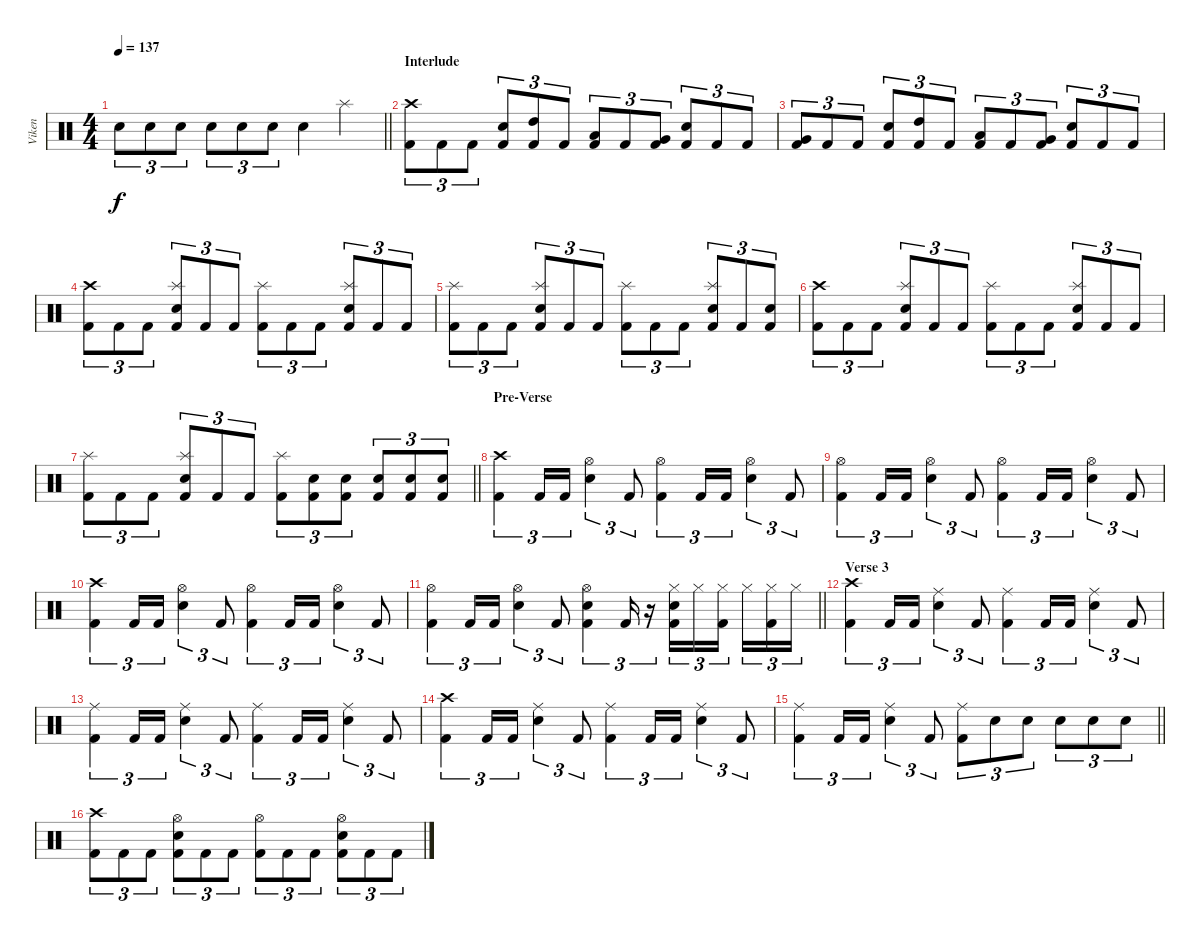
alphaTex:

\track ("Viken" "Viken") {instrument percussion}
\staff {score}
\articulation defaults
\ts (4 4)
\tempo 137
\clef neutral
\barLineRight lightlight
\ks c "Electric Snare (hit)".8{tu (3 2) dy f} "Electric Snare (hit)".8{tu (3 2)} "Electric Snare (hit)".8{tu (3 2)} "Electric Snare (hit)".8{tu (3 2)} "Electric Snare (hit)".8{tu (3 2)} "Electric Snare (hit)".8{tu (3 2)} "Electric Snare (hit)".4 "Splash (hit)".4
|
\section ("" "Interlude")
("Crash high (hit)" "Kick (hit) 2").8{tu (3 2)} "Kick (hit) 2".8{tu (3 2)} "Kick (hit) 2".8{tu (3 2)} ("Electric Snare (hit)" "Kick (hit) 2").8{tu (3 2)} ("High Tom (hit)" "Kick (hit) 2").8{tu (3 2)} "Kick (hit) 2".8{tu (3 2)} ("Low Tom (hit)" "Kick (hit) 2").8{tu (3 2)} "Kick (hit) 2".8{tu (3 2)} ("Very Low Tom (hit)" "Kick (hit) 2").8{tu (3 2)} ("Electric Snare (hit)" "Kick (hit) 2").8{tu (3 2)} "Kick (hit) 2".8{tu (3 2)} "Kick (hit) 2".8{tu (3 2)} |
("Very Low Tom (hit)" "Kick (hit) 2").8{tu (3 2)} "Kick (hit) 2".8{tu (3 2)} "Kick (hit) 2".8{tu (3 2)} ("Electric Snare (hit)" "Kick (hit) 2").8{tu (3 2)} ("High Tom (hit)" "Kick (hit) 2").8{tu (3 2)} "Kick (hit) 2".8{tu (3 2)} ("Low Tom (hit)" "Kick (hit) 2").8{tu (3 2)} "Kick (hit) 2".8{tu (3 2)} ("Very Low Tom (hit)" "Kick (hit) 2").8{tu (3 2)} ("Electric Snare (hit)" "Kick (hit) 2").8{tu (3 2)} "Kick (hit) 2".8{tu (3 2)} "Kick (hit) 2".8{tu (3 2)} |
("Crash high (hit)" "Kick (hit) 2").8{tu (3 2)} "Kick (hit) 2".8{tu (3 2)} "Kick (hit) 2".8{tu (3 2)} ("Splash (hit)" "Electric Snare (hit)" "Kick (hit) 2").8{tu (3 2)} "Kick (hit) 2".8{tu (3 2)} "Kick (hit) 2".8{tu (3 2)} ("Splash (hit)" "Kick (hit) 2").8{tu (3 2)} "Kick (hit) 2".8{tu (3 2)} "Kick (hit) 2".8{tu (3 2)} ("Splash (hit)" "Electric Snare (hit)" "Kick (hit) 2").8{tu (3 2)} "Kick (hit) 2".8{tu (3 2)} "Kick (hit) 2".8{tu (3 2)} |
("Splash (hit)" "Kick (hit) 2").8{tu (3 2)} "Kick (hit) 2".8{tu (3 2)} "Kick (hit) 2".8{tu (3 2)} ("Splash (hit)" "Electric Snare (hit)" "Kick (hit) 2").8{tu (3 2)} "Kick (hit) 2".8{tu (3 2)} "Kick (hit) 2".8{tu (3 2)} ("Splash (hit)" "Kick (hit) 2").8{tu (3 2)} "Kick (hit) 2".8{tu (3 2)} "Kick (hit) 2".8{tu (3 2)} ("Splash (hit)" "Electric Snare (hit)" "Kick (hit) 2").8{tu (3 2)} "Kick (hit) 2".8{tu (3 2)} ("Electric Snare (hit)" "Kick (hit) 2").8{tu (3 2)} |
("Crash high (hit)" "Kick (hit) 2").8{tu (3 2)} "Kick (hit) 2".8{tu (3 2)} "Kick (hit) 2".8{tu (3 2)} ("Splash (hit)" "Electric Snare (hit)" "Kick (hit) 2").8{tu (3 2)} "Kick (hit) 2".8{tu (3 2)} "Kick (hit) 2".8{tu (3 2)} ("Splash (hit)" "Kick (hit) 2").8{tu (3 2)} "Kick (hit) 2".8{tu (3 2)} "Kick (hit) 2".8{tu (3 2)} ("Splash (hit)" "Electric Snare (hit)" "Kick (hit) 2").8{tu (3 2)} "Kick (hit) 2".8{tu (3 2)} "Kick (hit) 2".8{tu (3 2)} |
\barLineRight lightlight
("Splash (hit)" "Kick (hit) 2").8{tu (3 2)} "Kick (hit) 2".8{tu (3 2)} "Kick (hit) 2".8{tu (3 2)} ("Splash (hit)" "Electric Snare (hit)" "Kick (hit) 2").8{tu (3 2)} "Kick (hit) 2".8{tu (3 2)} "Kick (hit) 2".8{tu (3 2)} ("Splash (hit)" "Kick (hit) 2").8{tu (3 2)} ("Electric Snare (hit)" "Kick (hit) 2").8{tu (3 2)} ("Electric Snare (hit)" "Kick (hit) 2").8{tu (3 2)} ("Electric Snare (hit)" "Kick (hit) 2").8{tu (3 2)} ("Electric Snare (hit)" "Kick (hit) 2").8{tu (3 2)} ("Electric Snare (hit)" "Kick (hit) 2").8{tu (3 2)} |
\section ("" "Pre-Verse")
("Crash high (hit)" "Kick (hit) 2").4{tu (3 2)} "Kick (hit) 2".16{tu (3 2)} "Kick (hit) 2".16{tu (3 2)} ("Hi-Hat (open)" "Electric Snare (hit)").4{tu (3 2)} "Kick (hit) 2".8{tu (3 2)} ("Hi-Hat (open)" "Kick (hit) 2").4{tu (3 2)} "Kick (hit) 2".16{tu (3 2)} "Kick (hit) 2".16{tu (3 2)} ("Hi-Hat (open)" "Electric Snare (hit)").4{tu (3 2)} "Kick (hit) 2".8{tu (3 2)} |
("Hi-Hat (open)" "Kick (hit) 2").4{tu (3 2)} "Kick (hit) 2".16{tu (3 2)} "Kick (hit) 2".16{tu (3 2)} ("Hi-Hat (open)" "Electric Snare (hit)").4{tu (3 2)} "Kick (hit) 2".8{tu (3 2)} ("Hi-Hat (open)" "Kick (hit) 2").4{tu (3 2)} "Kick (hit) 2".16{tu (3 2)} "Kick (hit) 2".16{tu (3 2)} ("Hi-Hat (open)" "Electric Snare (hit)").4{tu (3 2)} "Kick (hit) 2".8{tu (3 2)} |
("Crash high (hit)" "Kick (hit) 2").4{tu (3 2)} "Kick (hit) 2".16{tu (3 2)} "Kick (hit) 2".16{tu (3 2)} ("Hi-Hat (open)" "Electric Snare (hit)").4{tu (3 2)} "Kick (hit) 2".8{tu (3 2)} ("Hi-Hat (open)" "Kick (hit) 2").4{tu (3 2)} "Kick (hit) 2".16{tu (3 2)} "Kick (hit) 2".16{tu (3 2)} ("Hi-Hat (open)" "Electric Snare (hit)").4{tu (3 2)} "Kick (hit) 2".8{tu (3 2)} |
\barLineRight lightlight
("Hi-Hat (open)" "Kick (hit) 2").4{tu (3 2)} "Kick (hit) 2".16{tu (3 2)} "Kick (hit) 2".16{tu (3 2)} ("Hi-Hat (open)" "Electric Snare (hit)").4{tu (3 2)} "Kick (hit) 2".8{tu (3 2)} ("Hi-Hat (open)" "Electric Snare (hit)" "Kick (hit) 2").4{tu (3 2)} "Kick (hit) 2".16{tu (3 2)} r.16{tu (3 2)} ("Hi-Hat (closed)" "Electric Snare (hit)" "Kick (hit) 2").16{tu (3 2)} "Hi-Hat (closed)".16{tu (3 2)} ("Hi-Hat (closed)" "Kick (hit) 2").16{tu (3 2)} "Hi-Hat (closed)".16{tu (3 2)} ("Hi-Hat (closed)" "Kick (hit) 2").16{tu (3 2)} "Hi-Hat (closed)".16{tu (3 2)} |
\section ("" "Verse 3")
("Crash high (hit)" "Kick (hit) 2").4{tu (3 2)} "Kick (hit) 2".16{tu (3 2)} "Kick (hit) 2".16{tu (3 2)} ("Ride (middle)" "Electric Snare (hit)").4{tu (3 2)} "Kick (hit) 2".8{tu (3 2)} ("Ride (middle)" "Kick (hit) 2").4{tu (3 2)} "Kick (hit) 2".16{tu (3 2)} "Kick (hit) 2".16{tu (3 2)} ("Ride (middle)" "Electric Snare (hit)").4{tu (3 2)} "Kick (hit) 2".8{tu (3 2)} |
("Ride (middle)" "Kick (hit) 2").4{tu (3 2)} "Kick (hit) 2".16{tu (3 2)} "Kick (hit) 2".16{tu (3 2)} ("Ride (middle)" "Electric Snare (hit)").4{tu (3 2)} "Kick (hit) 2".8{tu (3 2)} ("Ride (middle)" "Kick (hit) 2").4{tu (3 2)} "Kick (hit) 2".16{tu (3 2)} "Kick (hit) 2".16{tu (3 2)} ("Ride (middle)" "Electric Snare (hit)").4{tu (3 2)} "Kick (hit) 2".8{tu (3 2)} |
("Crash high (hit)" "Kick (hit) 2").4{tu (3 2)} "Kick (hit) 2".16{tu (3 2)} "Kick (hit) 2".16{tu (3 2)} ("Ride (middle)" "Electric Snare (hit)").4{tu (3 2)} "Kick (hit) 2".8{tu (3 2)} ("Ride (middle)" "Kick (hit) 2").4{tu (3 2)} "Kick (hit) 2".16{tu (3 2)} "Kick (hit) 2".16{tu (3 2)} ("Ride (middle)" "Electric Snare (hit)").4{tu (3 2)} "Kick (hit) 2".8{tu (3 2)} |
\barLineRight lightlight
("Ride (middle)" "Kick (hit) 2").4{tu (3 2)} "Kick (hit) 2".16{tu (3 2)} "Kick (hit) 2".16{tu (3 2)} ("Ride (middle)" "Electric Snare (hit)").4{tu (3 2)} "Kick (hit) 2".8{tu (3 2)} ("Ride (middle)" "Kick (hit) 2").8{tu (3 2)} "Electric Snare (hit)".8{tu (3 2)} "Electric Snare (hit)".8{tu (3 2)} "Electric Snare (hit)".8{tu (3 2)} "Electric Snare (hit)".8{tu (3 2)} "Electric Snare (hit)".8{tu (3 2)} |
\section ("" "")
("Crash high (hit)" "Kick (hit) 2").8{tu (3 2)} "Kick (hit) 2".8{tu (3 2)} "Kick (hit) 2".8{tu (3 2)} ("Hi-Hat (open)" "Electric Snare (hit)" "Kick (hit) 2").8{tu (3 2)} "Kick (hit) 2".8{tu (3 2)} "Kick (hit) 2".8{tu (3 2)} ("Hi-Hat (open)" "Kick (hit) 2").8{tu (3 2)} "Kick (hit) 2".8{tu (3 2)} "Kick (hit) 2".8{tu (3 2)} ("Hi-Hat (open)" "Electric Snare (hit)" "Kick (hit) 2").8{tu (3 2)} "Kick (hit) 2".8{tu (3 2)} "Kick (hit) 2".8{tu (3 2)}
